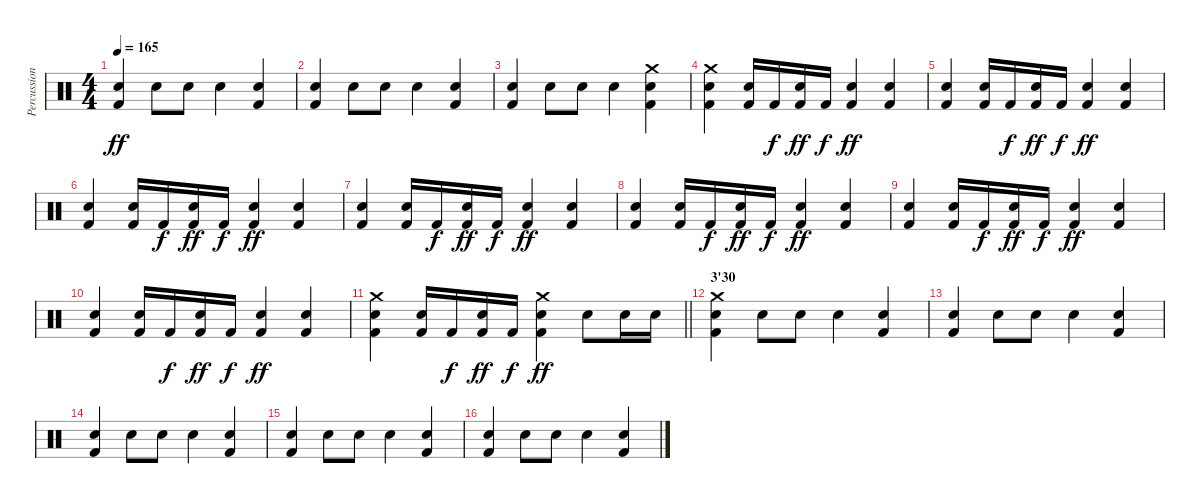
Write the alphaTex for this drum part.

\track ("Percussions" "Percussion") {instrument percussion}
\staff {score}
\articulation defaults
\ts (4 4)
\tempo 165
\clef neutral
\ks c
("Electric Snare (hit)" "Kick (hit) 2").4{dy ff} "Electric Snare (hit)".8 "Electric Snare (hit)".8 "Electric Snare (hit)".4 ("Electric Snare (hit)" "Kick (hit) 2").4 |
("Electric Snare (hit)" "Kick (hit) 2").4 "Electric Snare (hit)".8 "Electric Snare (hit)".8 "Electric Snare (hit)".4 ("Electric Snare (hit)" "Kick (hit) 2").4 |
("Electric Snare (hit)" "Kick (hit) 2").4 "Electric Snare (hit)".8 "Electric Snare (hit)".8 "Electric Snare (hit)".4 ("Crash medium (hit)" "Electric Snare (hit)" "Kick (hit) 2").4 |
("Crash medium (hit)" "Electric Snare (hit)" "Kick (hit) 2").4 ("Electric Snare (hit)" "Kick (hit) 2").16 "Kick (hit) 2".16{dy f} ("Electric Snare (hit)" "Kick (hit) 2").16{dy ff} "Kick (hit) 2".16{dy f} ("Electric Snare (hit)" "Kick (hit) 2").4{dy ff} ("Electric Snare (hit)" "Kick (hit) 2").4 |
("Electric Snare (hit)" "Kick (hit) 2").4 ("Electric Snare (hit)" "Kick (hit) 2").16 "Kick (hit) 2".16{dy f} ("Electric Snare (hit)" "Kick (hit) 2").16{dy ff} "Kick (hit) 2".16{dy f} ("Electric Snare (hit)" "Kick (hit) 2").4{dy ff} ("Electric Snare (hit)" "Kick (hit) 2").4 |
("Electric Snare (hit)" "Kick (hit) 2").4 ("Electric Snare (hit)" "Kick (hit) 2").16 "Kick (hit) 2".16{dy f} ("Electric Snare (hit)" "Kick (hit) 2").16{dy ff} "Kick (hit) 2".16{dy f} ("Electric Snare (hit)" "Kick (hit) 2").4{dy ff} ("Electric Snare (hit)" "Kick (hit) 2").4 |
("Electric Snare (hit)" "Kick (hit) 2").4 ("Electric Snare (hit)" "Kick (hit) 2").16 "Kick (hit) 2".16{dy f} ("Electric Snare (hit)" "Kick (hit) 2").16{dy ff} "Kick (hit) 2".16{dy f} ("Electric Snare (hit)" "Kick (hit) 2").4{dy ff} ("Electric Snare (hit)" "Kick (hit) 2").4 |
("Electric Snare (hit)" "Kick (hit) 2").4 ("Electric Snare (hit)" "Kick (hit) 2").16 "Kick (hit) 2".16{dy f} ("Electric Snare (hit)" "Kick (hit) 2").16{dy ff} "Kick (hit) 2".16{dy f} ("Electric Snare (hit)" "Kick (hit) 2").4{dy ff} ("Electric Snare (hit)" "Kick (hit) 2").4 |
("Electric Snare (hit)" "Kick (hit) 2").4 ("Electric Snare (hit)" "Kick (hit) 2").16 "Kick (hit) 2".16{dy f} ("Electric Snare (hit)" "Kick (hit) 2").16{dy ff} "Kick (hit) 2".16{dy f} ("Electric Snare (hit)" "Kick (hit) 2").4{dy ff} ("Electric Snare (hit)" "Kick (hit) 2").4 |
("Electric Snare (hit)" "Kick (hit) 2").4 ("Electric Snare (hit)" "Kick (hit) 2").16 "Kick (hit) 2".16{dy f} ("Electric Snare (hit)" "Kick (hit) 2").16{dy ff} "Kick (hit) 2".16{dy f} ("Electric Snare (hit)" "Kick (hit) 2").4{dy ff} ("Electric Snare (hit)" "Kick (hit) 2").4 |
\barLineRight lightlight
("Crash medium (hit)" "Electric Snare (hit)" "Kick (hit) 2").4 ("Electric Snare (hit)" "Kick (hit) 2").16 "Kick (hit) 2".16{dy f} ("Electric Snare (hit)" "Kick (hit) 2").16{dy ff} "Kick (hit) 2".16{dy f} ("Crash medium (hit)" "Electric Snare (hit)" "Kick (hit) 2").4{dy ff} "Electric Snare (hit)".8 "Electric Snare (hit)".16 "Electric Snare (hit)".16 |
\section ("" "3'30")
("Crash medium (hit)" "Electric Snare (hit)" "Kick (hit) 2").4 "Electric Snare (hit)".8 "Electric Snare (hit)".8 "Electric Snare (hit)".4 ("Electric Snare (hit)" "Kick (hit) 2").4 |
("Electric Snare (hit)" "Kick (hit) 2").4 "Electric Snare (hit)".8 "Electric Snare (hit)".8 "Electric Snare (hit)".4 ("Electric Snare (hit)" "Kick (hit) 2").4 |
("Electric Snare (hit)" "Kick (hit) 2").4 "Electric Snare (hit)".8 "Electric Snare (hit)".8 "Electric Snare (hit)".4 ("Electric Snare (hit)" "Kick (hit) 2").4 |
("Electric Snare (hit)" "Kick (hit) 2").4 "Electric Snare (hit)".8 "Electric Snare (hit)".8 "Electric Snare (hit)".4 ("Electric Snare (hit)" "Kick (hit) 2").4 |
("Electric Snare (hit)" "Kick (hit) 2").4 "Electric Snare (hit)".8 "Electric Snare (hit)".8 "Electric Snare (hit)".4 ("Electric Snare (hit)" "Kick (hit) 2").4
